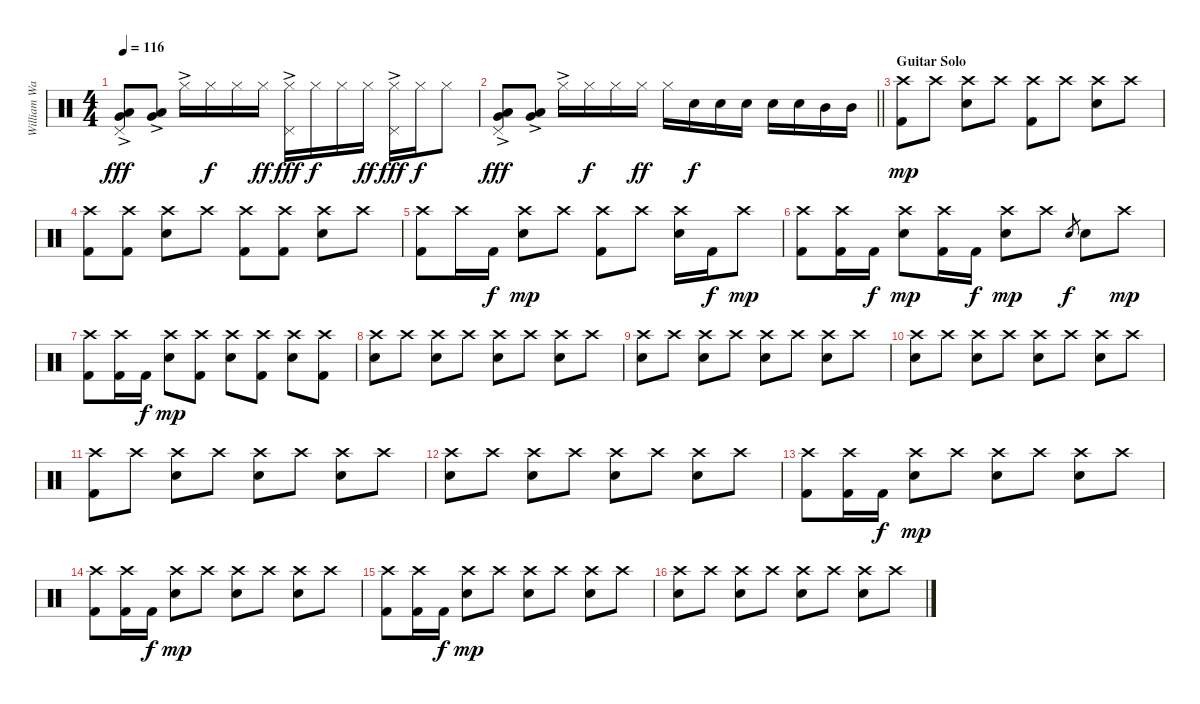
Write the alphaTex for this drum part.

\track ("William Ward" "William Wa") {instrument percussion}
\staff {score}
\articulation defaults
\ts (4 4)
\tempo 116
\clef neutral
\ks c
("Low Tom (hit)"{ac} "Very Low Tom (hit)"{ac} "Pedal Hi-Hat (hit)"{ac}).8{dy fff} ("Low Tom (hit)"{ac} "Very Low Tom (hit)"{ac}).8 "Hi-Hat (closed)"{ac}.16 "Hi-Hat (closed)".16{dy f} "Hi-Hat (closed)".16 "Hi-Hat (closed)".16{dy ff} ("Hi-Hat (closed)"{ac} "Pedal Hi-Hat (hit)"{ac}).16{dy fff} "Hi-Hat (closed)".16{dy f} "Hi-Hat (closed)".16 "Hi-Hat (closed)".16{dy ff} ("Hi-Hat (closed)"{ac} "Pedal Hi-Hat (hit)"{ac}).16{dy fff} "Hi-Hat (closed)".16{dy f} "Hi-Hat (closed)".8 |
\barLineRight lightlight
("Low Tom (hit)"{ac} "Very Low Tom (hit)"{ac} "Pedal Hi-Hat (hit)"{ac}).8{dy fff} ("Low Tom (hit)"{ac} "Very Low Tom (hit)"{ac}).8 "Hi-Hat (closed)"{ac}.16 "Hi-Hat (closed)".16{dy f} "Hi-Hat (closed)".16 "Hi-Hat (closed)".16{dy ff} "Hi-Hat (closed)".16 "Snare (hit) 2".16{dy f} "Snare (hit) 2".16 "Snare (hit) 2".16 "Snare (hit) 2".16 "Snare (hit) 2".16 "Mid Tom (hit)".16 "Mid Tom (hit)".16 |
\section ("" "Guitar Solo")
("Crash high (hit)" "Kick (hit) 2").8{dy mp} "Crash high (hit)".8 ("Crash high (hit)" "Snare (hit) 2").8 "Crash high (hit)".8 ("Crash high (hit)" "Kick (hit) 2").8 "Crash high (hit)".8 ("Crash high (hit)" "Snare (hit) 2").8 "Crash high (hit)".8 |
("Crash high (hit)" "Kick (hit) 2").8 ("Crash high (hit)" "Kick (hit) 2").8 ("Crash high (hit)" "Snare (hit) 2").8 "Crash high (hit)".8 ("Crash high (hit)" "Kick (hit) 2").8 ("Crash high (hit)" "Kick (hit) 2").8 ("Crash high (hit)" "Snare (hit) 2").8 "Crash high (hit)".8 |
("Crash high (hit)" "Kick (hit) 2").8 "Crash high (hit)".16 "Kick (hit) 2".16{dy f} ("Crash high (hit)" "Snare (hit) 2").8{dy mp} "Crash high (hit)".8 ("Crash high (hit)" "Kick (hit) 2").8 "Crash high (hit)".8 ("Crash high (hit)" "Snare (hit) 2").16 "Kick (hit) 2".16{dy f} "Crash high (hit)".8{dy mp} |
("Crash high (hit)" "Kick (hit) 2").8 ("Crash high (hit)" "Kick (hit) 2").16 "Kick (hit) 2".16{dy f} ("Crash high (hit)" "Snare (hit) 2").8{dy mp} ("Crash high (hit)" "Kick (hit) 2").16 "Kick (hit) 2".16{dy f} ("Crash high (hit)" "Snare (hit) 2").8{dy mp} "Crash high (hit)".8 "Snare (hit) 2".8{gr dy f} "Snare (hit) 2".8 "Crash high (hit)".8{dy mp} |
("Crash high (hit)" "Kick (hit) 2").8 ("Crash high (hit)" "Kick (hit) 2").16 "Kick (hit) 2".16{dy f} ("Crash high (hit)" "Snare (hit) 2").8{dy mp} ("Crash high (hit)" "Kick (hit) 2").8 ("Crash high (hit)" "Snare (hit) 2").8 ("Crash high (hit)" "Kick (hit) 2").8 ("Crash high (hit)" "Snare (hit) 2").8 ("Crash high (hit)" "Kick (hit) 2").8 |
("Crash high (hit)" "Snare (hit) 2").8 "Crash high (hit)".8 ("Crash high (hit)" "Snare (hit) 2").8 "Crash high (hit)".8 ("Crash high (hit)" "Snare (hit) 2").8 "Crash high (hit)".8 ("Crash high (hit)" "Snare (hit) 2").8 "Crash high (hit)".8 |
("Crash high (hit)" "Snare (hit) 2").8 "Crash high (hit)".8 ("Crash high (hit)" "Snare (hit) 2").8 "Crash high (hit)".8 ("Crash high (hit)" "Snare (hit) 2").8 "Crash high (hit)".8 ("Crash high (hit)" "Snare (hit) 2").8 "Crash high (hit)".8 |
("Crash high (hit)" "Snare (hit) 2").8 "Crash high (hit)".8 ("Crash high (hit)" "Snare (hit) 2").8 "Crash high (hit)".8 ("Crash high (hit)" "Snare (hit) 2").8 "Crash high (hit)".8 ("Crash high (hit)" "Snare (hit) 2").8 "Crash high (hit)".8 |
("Crash high (hit)" "Kick (hit) 2").8 "Crash high (hit)".8 ("Crash high (hit)" "Snare (hit) 2").8 "Crash high (hit)".8 ("Crash high (hit)" "Snare (hit) 2").8 "Crash high (hit)".8 ("Crash high (hit)" "Snare (hit) 2").8 "Crash high (hit)".8 |
("Crash high (hit)" "Snare (hit) 2").8 "Crash high (hit)".8 ("Crash high (hit)" "Snare (hit) 2").8 "Crash high (hit)".8 ("Crash high (hit)" "Snare (hit) 2").8 "Crash high (hit)".8 ("Crash high (hit)" "Snare (hit) 2").8 "Crash high (hit)".8 |
("Crash high (hit)" "Kick (hit) 2").8 ("Crash high (hit)" "Kick (hit) 2").16 "Kick (hit) 2".16{dy f} ("Crash high (hit)" "Snare (hit) 2").8{dy mp} "Crash high (hit)".8 ("Crash high (hit)" "Snare (hit) 2").8 "Crash high (hit)".8 ("Crash high (hit)" "Snare (hit) 2").8 "Crash high (hit)".8 |
("Crash high (hit)" "Kick (hit) 2").8 ("Crash high (hit)" "Kick (hit) 2").16 "Kick (hit) 2".16{dy f} ("Crash high (hit)" "Snare (hit) 2").8{dy mp} "Crash high (hit)".8 ("Crash high (hit)" "Snare (hit) 2").8 "Crash high (hit)".8 ("Crash high (hit)" "Snare (hit) 2").8 "Crash high (hit)".8 |
("Crash high (hit)" "Kick (hit) 2").8 ("Crash high (hit)" "Kick (hit) 2").16 "Kick (hit) 2".16{dy f} ("Crash high (hit)" "Snare (hit) 2").8{dy mp} "Crash high (hit)".8 ("Crash high (hit)" "Snare (hit) 2").8 "Crash high (hit)".8 ("Crash high (hit)" "Snare (hit) 2").8 "Crash high (hit)".8 |
("Crash high (hit)" "Snare (hit) 2").8 "Crash high (hit)".8 ("Crash high (hit)" "Snare (hit) 2").8 "Crash high (hit)".8 ("Crash high (hit)" "Snare (hit) 2").8 "Crash high (hit)".8 ("Crash high (hit)" "Snare (hit) 2").8 "Crash high (hit)".8
